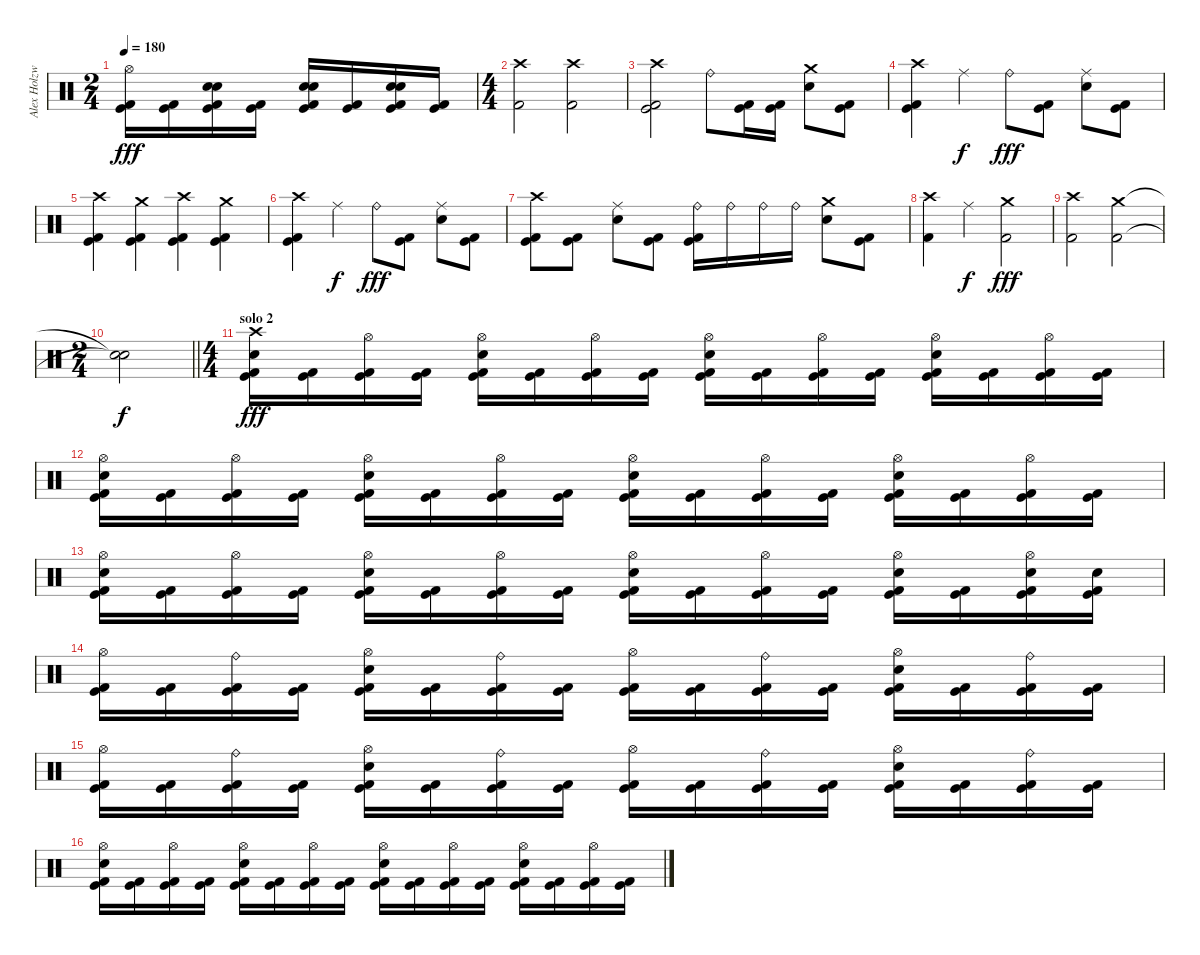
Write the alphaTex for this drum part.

\track ("Alex Holzwarth" "Alex Holzw") {instrument percussion}
\staff {score}
\articulation defaults
\ts (2 4)
\tempo 180
\clef neutral
\ks c
("Hi-Hat (open)" "Kick (hit)" "Kick (hit) 2").16{dy fff} ("Kick (hit)" "Kick (hit) 2").16 ("Snare (hit) 2" "Electric Snare (hit)" "Kick (hit)" "Kick (hit) 2").16 ("Kick (hit)" "Kick (hit) 2").16 ("Snare (hit) 2" "Electric Snare (hit)" "Kick (hit)" "Kick (hit) 2").16 ("Kick (hit)" "Kick (hit) 2").16 ("Snare (hit) 2" "Electric Snare (hit)" "Kick (hit)" "Kick (hit) 2").16 ("Kick (hit)" "Kick (hit) 2").16 |
\ts (4 4)
("Crash high (hit)" "Kick (hit) 2").2 ("Crash high (hit)" "Kick (hit) 2").2 |
("Crash high (hit)" "Kick (hit)" "Kick (hit) 2").2 "Ride (bell)".8 ("Kick (hit)" "Kick (hit) 2").16 ("Kick (hit)" "Kick (hit) 2").16 ("Crash medium (hit)" "Snare (hit) 2").8 ("Kick (hit)" "Kick (hit) 2").8 |
("Crash high (hit)" "Kick (hit)" "Kick (hit) 2").4 "Ride (middle)".4{dy f} "Ride (bell)".8{dy fff} ("Kick (hit)" "Kick (hit) 2").8 ("Ride (middle)" "Snare (hit) 2").8 ("Kick (hit)" "Kick (hit) 2").8 |
("Crash high (hit)" "Kick (hit)" "Kick (hit) 2").4 ("Crash medium (hit)" "Kick (hit)" "Kick (hit) 2").4 ("Crash high (hit)" "Kick (hit)" "Kick (hit) 2").4 ("Crash medium (hit)" "Kick (hit)" "Kick (hit) 2").4 |
("Crash high (hit)" "Kick (hit)" "Kick (hit) 2").4 "Ride (middle)".4{dy f} "Ride (bell)".8{dy fff} ("Kick (hit)" "Kick (hit) 2").8 ("Ride (middle)" "Snare (hit) 2").8 ("Kick (hit)" "Kick (hit) 2").8 |
("Crash high (hit)" "Kick (hit)" "Kick (hit) 2").8 ("Kick (hit)" "Kick (hit) 2").8 ("Ride (middle)" "Snare (hit) 2").8 ("Kick (hit)" "Kick (hit) 2").8 ("Ride (bell)" "Kick (hit)" "Kick (hit) 2").16 "Ride (bell)".16 "Ride (bell)".16 "Ride (bell)".16 ("Crash medium (hit)" "Snare (hit) 2").8 ("Kick (hit)" "Kick (hit) 2").8 |
("Crash high (hit)" "Kick (hit) 2").4 "Ride (middle)".4{dy f} ("Crash medium (hit)" "Kick (hit) 2").2{dy fff} |
("Crash high (hit)" "Kick (hit) 2").2 ("Crash medium (hit)" "Kick (hit) 2").2 |
\ts (2 4)
\barLineRight lightlight
("Snare (hit)"{t} "Snare (hit)"{t}).2{dy f} |
\ts (4 4)
\section ("" "solo 2")
("Crash high (hit)" "Snare (hit) 2" "Kick (hit)" "Kick (hit) 2").16{dy fff} ("Kick (hit)" "Kick (hit) 2").16 ("Hi-Hat (open)" "Kick (hit)" "Kick (hit) 2").16 ("Kick (hit)" "Kick (hit) 2").16 ("Hi-Hat (open)" "Snare (hit) 2" "Kick (hit)" "Kick (hit) 2").16 ("Kick (hit)" "Kick (hit) 2").16 ("Hi-Hat (open)" "Kick (hit)" "Kick (hit) 2").16 ("Kick (hit)" "Kick (hit) 2").16 ("Hi-Hat (open)" "Snare (hit) 2" "Kick (hit)" "Kick (hit) 2").16 ("Kick (hit)" "Kick (hit) 2").16 ("Hi-Hat (open)" "Kick (hit)" "Kick (hit) 2").16 ("Kick (hit)" "Kick (hit) 2").16 ("Hi-Hat (open)" "Snare (hit) 2" "Kick (hit)" "Kick (hit) 2").16 ("Kick (hit)" "Kick (hit) 2").16 ("Hi-Hat (open)" "Kick (hit)" "Kick (hit) 2").16 ("Kick (hit)" "Kick (hit) 2").16 |
("Hi-Hat (open)" "Snare (hit) 2" "Kick (hit)" "Kick (hit) 2").16 ("Kick (hit)" "Kick (hit) 2").16 ("Hi-Hat (open)" "Kick (hit)" "Kick (hit) 2").16 ("Kick (hit)" "Kick (hit) 2").16 ("Hi-Hat (open)" "Snare (hit) 2" "Kick (hit)" "Kick (hit) 2").16 ("Kick (hit)" "Kick (hit) 2").16 ("Hi-Hat (open)" "Kick (hit)" "Kick (hit) 2").16 ("Kick (hit)" "Kick (hit) 2").16 ("Hi-Hat (open)" "Snare (hit) 2" "Kick (hit)" "Kick (hit) 2").16 ("Kick (hit)" "Kick (hit) 2").16 ("Hi-Hat (open)" "Kick (hit)" "Kick (hit) 2").16 ("Kick (hit)" "Kick (hit) 2").16 ("Hi-Hat (open)" "Snare (hit) 2" "Kick (hit)" "Kick (hit) 2").16 ("Kick (hit)" "Kick (hit) 2").16 ("Hi-Hat (open)" "Kick (hit)" "Kick (hit) 2").16 ("Kick (hit)" "Kick (hit) 2").16 |
("Hi-Hat (open)" "Snare (hit) 2" "Kick (hit)" "Kick (hit) 2").16 ("Kick (hit)" "Kick (hit) 2").16 ("Hi-Hat (open)" "Kick (hit)" "Kick (hit) 2").16 ("Kick (hit)" "Kick (hit) 2").16 ("Hi-Hat (open)" "Snare (hit) 2" "Kick (hit)" "Kick (hit) 2").16 ("Kick (hit)" "Kick (hit) 2").16 ("Hi-Hat (open)" "Kick (hit)" "Kick (hit) 2").16 ("Kick (hit)" "Kick (hit) 2").16 ("Hi-Hat (open)" "Snare (hit) 2" "Kick (hit)" "Kick (hit) 2").16 ("Kick (hit)" "Kick (hit) 2").16 ("Hi-Hat (open)" "Kick (hit)" "Kick (hit) 2").16 ("Kick (hit)" "Kick (hit) 2").16 ("Hi-Hat (open)" "Snare (hit) 2" "Kick (hit)" "Kick (hit) 2").16 ("Kick (hit)" "Kick (hit) 2").16 ("Hi-Hat (open)" "Snare (hit) 2" "Kick (hit)" "Kick (hit) 2").16 ("Snare (hit) 2" "Kick (hit)" "Kick (hit) 2").16 |
("Hi-Hat (open)" "Kick (hit)" "Kick (hit) 2").16 ("Kick (hit)" "Kick (hit) 2").16 ("Ride (bell)" "Kick (hit)" "Kick (hit) 2").16 ("Kick (hit)" "Kick (hit) 2").16 ("Hi-Hat (open)" "Snare (hit) 2" "Kick (hit)" "Kick (hit) 2").16 ("Kick (hit)" "Kick (hit) 2").16 ("Ride (bell)" "Kick (hit)" "Kick (hit) 2").16 ("Kick (hit)" "Kick (hit) 2").16 ("Hi-Hat (open)" "Kick (hit)" "Kick (hit) 2").16 ("Kick (hit)" "Kick (hit) 2").16 ("Ride (bell)" "Kick (hit)" "Kick (hit) 2").16 ("Kick (hit)" "Kick (hit) 2").16 ("Hi-Hat (open)" "Snare (hit) 2" "Kick (hit)" "Kick (hit) 2").16 ("Kick (hit)" "Kick (hit) 2").16 ("Ride (bell)" "Kick (hit)" "Kick (hit) 2").16 ("Kick (hit)" "Kick (hit) 2").16 |
("Hi-Hat (open)" "Kick (hit)" "Kick (hit) 2").16 ("Kick (hit)" "Kick (hit) 2").16 ("Ride (bell)" "Kick (hit)" "Kick (hit) 2").16 ("Kick (hit)" "Kick (hit) 2").16 ("Hi-Hat (open)" "Snare (hit) 2" "Kick (hit)" "Kick (hit) 2").16 ("Kick (hit)" "Kick (hit) 2").16 ("Ride (bell)" "Kick (hit)" "Kick (hit) 2").16 ("Kick (hit)" "Kick (hit) 2").16 ("Hi-Hat (open)" "Kick (hit)" "Kick (hit) 2").16 ("Kick (hit)" "Kick (hit) 2").16 ("Ride (bell)" "Kick (hit)" "Kick (hit) 2").16 ("Kick (hit)" "Kick (hit) 2").16 ("Hi-Hat (open)" "Snare (hit) 2" "Kick (hit)" "Kick (hit) 2").16 ("Kick (hit)" "Kick (hit) 2").16 ("Ride (bell)" "Kick (hit)" "Kick (hit) 2").16 ("Kick (hit)" "Kick (hit) 2").16 |
("Hi-Hat (open)" "Snare (hit) 2" "Kick (hit)" "Kick (hit) 2").16 ("Kick (hit)" "Kick (hit) 2").16 ("Hi-Hat (open)" "Kick (hit)" "Kick (hit) 2").16 ("Kick (hit)" "Kick (hit) 2").16 ("Hi-Hat (open)" "Snare (hit) 2" "Kick (hit)" "Kick (hit) 2").16 ("Kick (hit)" "Kick (hit) 2").16 ("Hi-Hat (open)" "Kick (hit)" "Kick (hit) 2").16 ("Kick (hit)" "Kick (hit) 2").16 ("Hi-Hat (open)" "Snare (hit) 2" "Kick (hit)" "Kick (hit) 2").16 ("Kick (hit)" "Kick (hit) 2").16 ("Hi-Hat (open)" "Kick (hit)" "Kick (hit) 2").16 ("Kick (hit)" "Kick (hit) 2").16 ("Hi-Hat (open)" "Snare (hit) 2" "Kick (hit)" "Kick (hit) 2").16 ("Kick (hit)" "Kick (hit) 2").16 ("Hi-Hat (open)" "Kick (hit)" "Kick (hit) 2").16 ("Kick (hit)" "Kick (hit) 2").16
